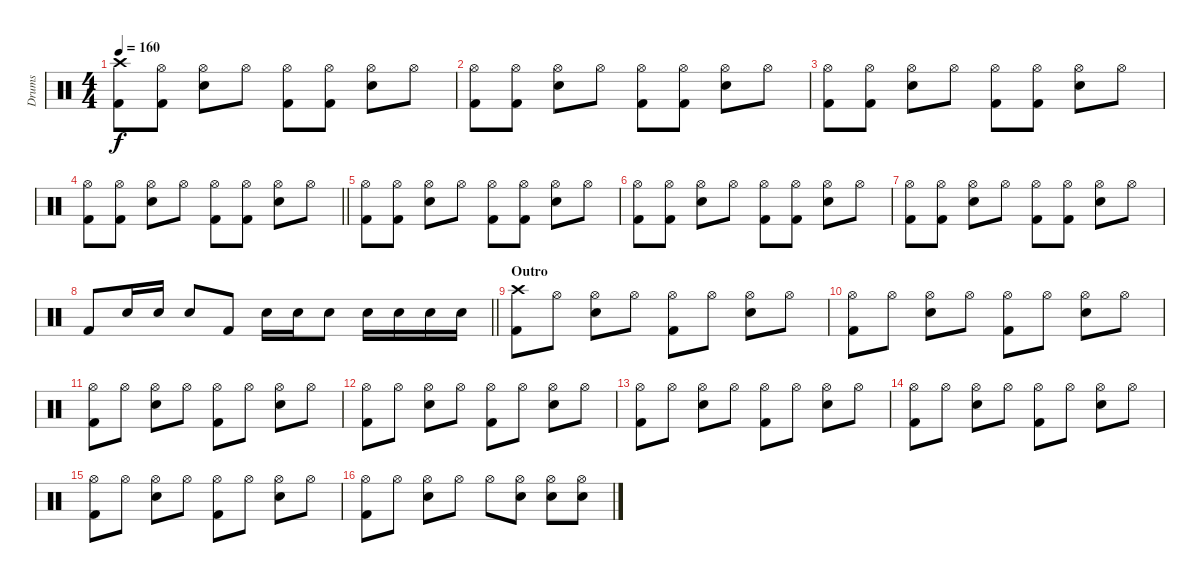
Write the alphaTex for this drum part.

\track ("Drums" "Drums") {instrument percussion}
\staff {score}
\articulation defaults
\ts (4 4)
\tempo 160
\clef neutral
\ks c
("Crash high (hit)" "Kick (hit) 2").8{dy f} ("Hi-Hat (open)" "Kick (hit) 2").8 ("Hi-Hat (open)" "Snare (hit) 2").8 "Hi-Hat (open)".8 ("Hi-Hat (open)" "Kick (hit) 2").8 ("Hi-Hat (open)" "Kick (hit) 2").8 ("Hi-Hat (open)" "Snare (hit) 2").8 "Hi-Hat (open)".8 |
("Hi-Hat (open)" "Kick (hit) 2").8 ("Hi-Hat (open)" "Kick (hit) 2").8 ("Hi-Hat (open)" "Snare (hit) 2").8 "Hi-Hat (open)".8 ("Hi-Hat (open)" "Kick (hit) 2").8 ("Hi-Hat (open)" "Kick (hit) 2").8 ("Hi-Hat (open)" "Snare (hit) 2").8 "Hi-Hat (open)".8 |
("Hi-Hat (open)" "Kick (hit) 2").8 ("Hi-Hat (open)" "Kick (hit) 2").8 ("Hi-Hat (open)" "Snare (hit) 2").8 "Hi-Hat (open)".8 ("Hi-Hat (open)" "Kick (hit) 2").8 ("Hi-Hat (open)" "Kick (hit) 2").8 ("Hi-Hat (open)" "Snare (hit) 2").8 "Hi-Hat (open)".8 |
\barLineRight lightlight
("Hi-Hat (open)" "Kick (hit) 2").8 ("Hi-Hat (open)" "Kick (hit) 2").8 ("Hi-Hat (open)" "Snare (hit) 2").8 "Hi-Hat (open)".8 ("Hi-Hat (open)" "Kick (hit) 2").8 ("Hi-Hat (open)" "Kick (hit) 2").8 ("Hi-Hat (open)" "Snare (hit) 2").8 "Hi-Hat (open)".8 |
("Hi-Hat (open)" "Kick (hit) 2").8 ("Hi-Hat (open)" "Kick (hit) 2").8 ("Hi-Hat (open)" "Snare (hit) 2").8 "Hi-Hat (open)".8 ("Hi-Hat (open)" "Kick (hit) 2").8 ("Hi-Hat (open)" "Kick (hit) 2").8 ("Hi-Hat (open)" "Snare (hit) 2").8 "Hi-Hat (open)".8 |
("Hi-Hat (open)" "Kick (hit) 2").8 ("Hi-Hat (open)" "Kick (hit) 2").8 ("Hi-Hat (open)" "Snare (hit) 2").8 "Hi-Hat (open)".8 ("Hi-Hat (open)" "Kick (hit) 2").8 ("Hi-Hat (open)" "Kick (hit) 2").8 ("Hi-Hat (open)" "Snare (hit) 2").8 "Hi-Hat (open)".8 |
("Hi-Hat (open)" "Kick (hit) 2").8 ("Hi-Hat (open)" "Kick (hit) 2").8 ("Hi-Hat (open)" "Snare (hit) 2").8 "Hi-Hat (open)".8 ("Hi-Hat (open)" "Kick (hit) 2").8 ("Hi-Hat (open)" "Kick (hit) 2").8 ("Hi-Hat (open)" "Snare (hit) 2").8 "Hi-Hat (open)".8 |
\barLineRight lightlight "Kick (hit) 2".8 "Snare (hit) 2".16 "Snare (hit) 2".16 "Snare (hit) 2".8 "Kick (hit) 2".8 "Snare (hit) 2".16 "Snare (hit) 2".16 "Snare (hit) 2".8 "Snare (hit) 2".16 "Snare (hit) 2".16 "Snare (hit) 2".16 "Snare (hit) 2".16
|
\section ("" "Outro")
("Crash high (hit)" "Kick (hit) 2").8 "Hi-Hat (open)".8 ("Hi-Hat (open)" "Snare (hit) 2").8 "Hi-Hat (open)".8 ("Hi-Hat (open)" "Kick (hit) 2").8 "Hi-Hat (open)".8 ("Hi-Hat (open)" "Snare (hit) 2").8 "Hi-Hat (open)".8 |
("Hi-Hat (open)" "Kick (hit) 2").8 "Hi-Hat (open)".8 ("Hi-Hat (open)" "Snare (hit) 2").8 "Hi-Hat (open)".8 ("Hi-Hat (open)" "Kick (hit) 2").8 "Hi-Hat (open)".8 ("Hi-Hat (open)" "Snare (hit) 2").8 "Hi-Hat (open)".8 |
("Hi-Hat (open)" "Kick (hit) 2").8 "Hi-Hat (open)".8 ("Hi-Hat (open)" "Snare (hit) 2").8 "Hi-Hat (open)".8 ("Hi-Hat (open)" "Kick (hit) 2").8 "Hi-Hat (open)".8 ("Hi-Hat (open)" "Snare (hit) 2").8 "Hi-Hat (open)".8 |
("Hi-Hat (open)" "Kick (hit) 2").8 "Hi-Hat (open)".8 ("Hi-Hat (open)" "Snare (hit) 2").8 "Hi-Hat (open)".8 ("Hi-Hat (open)" "Kick (hit) 2").8 "Hi-Hat (open)".8 ("Hi-Hat (open)" "Snare (hit) 2").8 "Hi-Hat (open)".8 |
("Hi-Hat (open)" "Kick (hit) 2").8 "Hi-Hat (open)".8 ("Hi-Hat (open)" "Snare (hit) 2").8 "Hi-Hat (open)".8 ("Hi-Hat (open)" "Kick (hit) 2").8 "Hi-Hat (open)".8 ("Hi-Hat (open)" "Snare (hit) 2").8 "Hi-Hat (open)".8 |
("Hi-Hat (open)" "Kick (hit) 2").8 "Hi-Hat (open)".8 ("Hi-Hat (open)" "Snare (hit) 2").8 "Hi-Hat (open)".8 ("Hi-Hat (open)" "Kick (hit) 2").8 "Hi-Hat (open)".8 ("Hi-Hat (open)" "Snare (hit) 2").8 "Hi-Hat (open)".8 |
("Hi-Hat (open)" "Kick (hit) 2").8 "Hi-Hat (open)".8 ("Hi-Hat (open)" "Snare (hit) 2").8 "Hi-Hat (open)".8 ("Hi-Hat (open)" "Kick (hit) 2").8 "Hi-Hat (open)".8 ("Hi-Hat (open)" "Snare (hit) 2").8 "Hi-Hat (open)".8 |
("Hi-Hat (open)" "Kick (hit) 2").8 "Hi-Hat (open)".8 ("Hi-Hat (open)" "Snare (hit) 2").8 "Hi-Hat (open)".8 "Hi-Hat (open)".8 ("Hi-Hat (open)" "Snare (hit) 2").8 ("Hi-Hat (open)" "Snare (hit) 2").8 ("Hi-Hat (open)" "Snare (hit) 2").8
